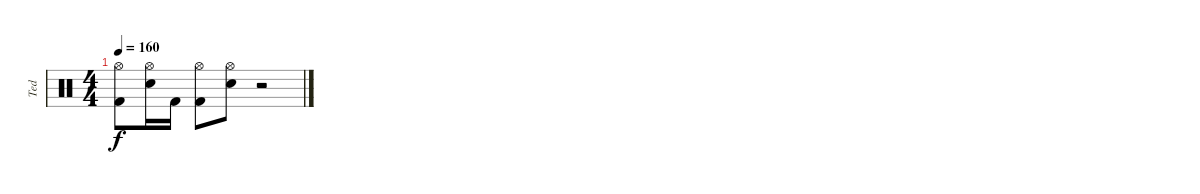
\track ("Ted" "Ted") {instrument percussion}
\staff {score}
\articulation defaults
\ts (4 4)
\tempo 160
\clef neutral
\ks c
("Hi-Hat (open)" "Kick (hit) 2").8{dy f} ("Hi-Hat (open)" "Electric Snare (hit)").16 "Kick (hit) 2".16 ("Hi-Hat (open)" "Kick (hit) 2").8 ("Hi-Hat (open)" "Electric Snare (hit)").8 r.2
